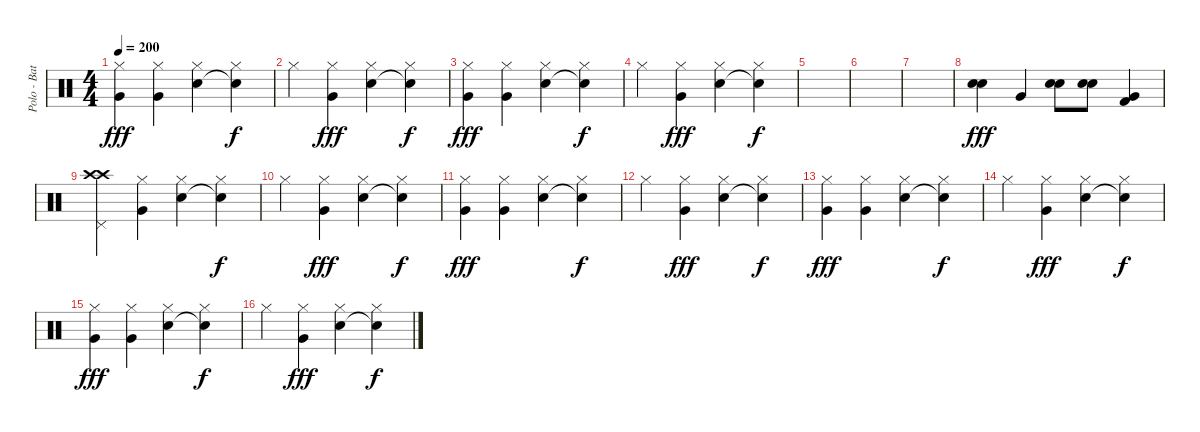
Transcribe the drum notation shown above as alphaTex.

\track ("Polo - Batería" "Polo - Bat") {instrument percussion}
\staff {score}
\articulation defaults
\ts (4 4)
\tempo 200
\clef neutral
\ks c
("Hi-Hat (closed)" "Very Low Tom (hit)").4{dy fff} ("Hi-Hat (closed)" "Very Low Tom (hit)").4 ("Hi-Hat (closed)" "Electric Snare (hit)").4 ("Hi-Hat (closed)" "Snare (hit)"{t}).4{dy f} |
"Hi-Hat (closed)".4 ("Hi-Hat (closed)" "Very Low Tom (hit)").4{dy fff} ("Hi-Hat (closed)" "Electric Snare (hit)").4 ("Hi-Hat (closed)" "Snare (hit)"{t}).4{dy f} |
("Hi-Hat (closed)" "Very Low Tom (hit)").4{dy fff} ("Hi-Hat (closed)" "Very Low Tom (hit)").4 ("Hi-Hat (closed)" "Electric Snare (hit)").4 ("Hi-Hat (closed)" "Snare (hit)"{t}).4{dy f} |
"Hi-Hat (closed)".4 ("Hi-Hat (closed)" "Very Low Tom (hit)").4{dy fff} ("Hi-Hat (closed)" "Electric Snare (hit)").4 ("Hi-Hat (closed)" "Snare (hit)"{t}).4{dy f} |
|
|
|
("Electric Snare (hit)" "Snare (hit) 2").4{dy fff} "Very Low Tom (hit)".4 ("Hand Clap (hit)" "Electric Snare (hit)").8 ("Hand Clap (hit)" "Electric Snare (hit)").8 ("Kick (hit) 2" "Very Low Tom (hit)").4 |
("Pedal Hi-Hat (hit)" "Crash high (hit)" "Crash high (hit)").4 ("Hi-Hat (closed)" "Very Low Tom (hit)").4 ("Hi-Hat (closed)" "Electric Snare (hit)").4 ("Hi-Hat (closed)" "Snare (hit)"{t}).4{dy f} |
"Hi-Hat (closed)".4 ("Hi-Hat (closed)" "Very Low Tom (hit)").4{dy fff} ("Hi-Hat (closed)" "Electric Snare (hit)").4 ("Hi-Hat (closed)" "Snare (hit)"{t}).4{dy f} |
("Hi-Hat (closed)" "Very Low Tom (hit)").4{dy fff} ("Hi-Hat (closed)" "Very Low Tom (hit)").4 ("Hi-Hat (closed)" "Electric Snare (hit)").4 ("Hi-Hat (closed)" "Snare (hit)"{t}).4{dy f} |
"Hi-Hat (closed)".4 ("Hi-Hat (closed)" "Very Low Tom (hit)").4{dy fff} ("Hi-Hat (closed)" "Electric Snare (hit)").4 ("Hi-Hat (closed)" "Snare (hit)"{t}).4{dy f} |
("Hi-Hat (closed)" "Very Low Tom (hit)").4{dy fff} ("Hi-Hat (closed)" "Very Low Tom (hit)").4 ("Hi-Hat (closed)" "Electric Snare (hit)").4 ("Hi-Hat (closed)" "Snare (hit)"{t}).4{dy f} |
"Hi-Hat (closed)".4 ("Hi-Hat (closed)" "Very Low Tom (hit)").4{dy fff} ("Hi-Hat (closed)" "Electric Snare (hit)").4 ("Hi-Hat (closed)" "Snare (hit)"{t}).4{dy f} |
("Hi-Hat (closed)" "Very Low Tom (hit)").4{dy fff} ("Hi-Hat (closed)" "Very Low Tom (hit)").4 ("Hi-Hat (closed)" "Electric Snare (hit)").4 ("Hi-Hat (closed)" "Snare (hit)"{t}).4{dy f} |
"Hi-Hat (closed)".4 ("Hi-Hat (closed)" "Very Low Tom (hit)").4{dy fff} ("Hi-Hat (closed)" "Electric Snare (hit)").4 ("Hi-Hat (closed)" "Snare (hit)"{t}).4{dy f}
